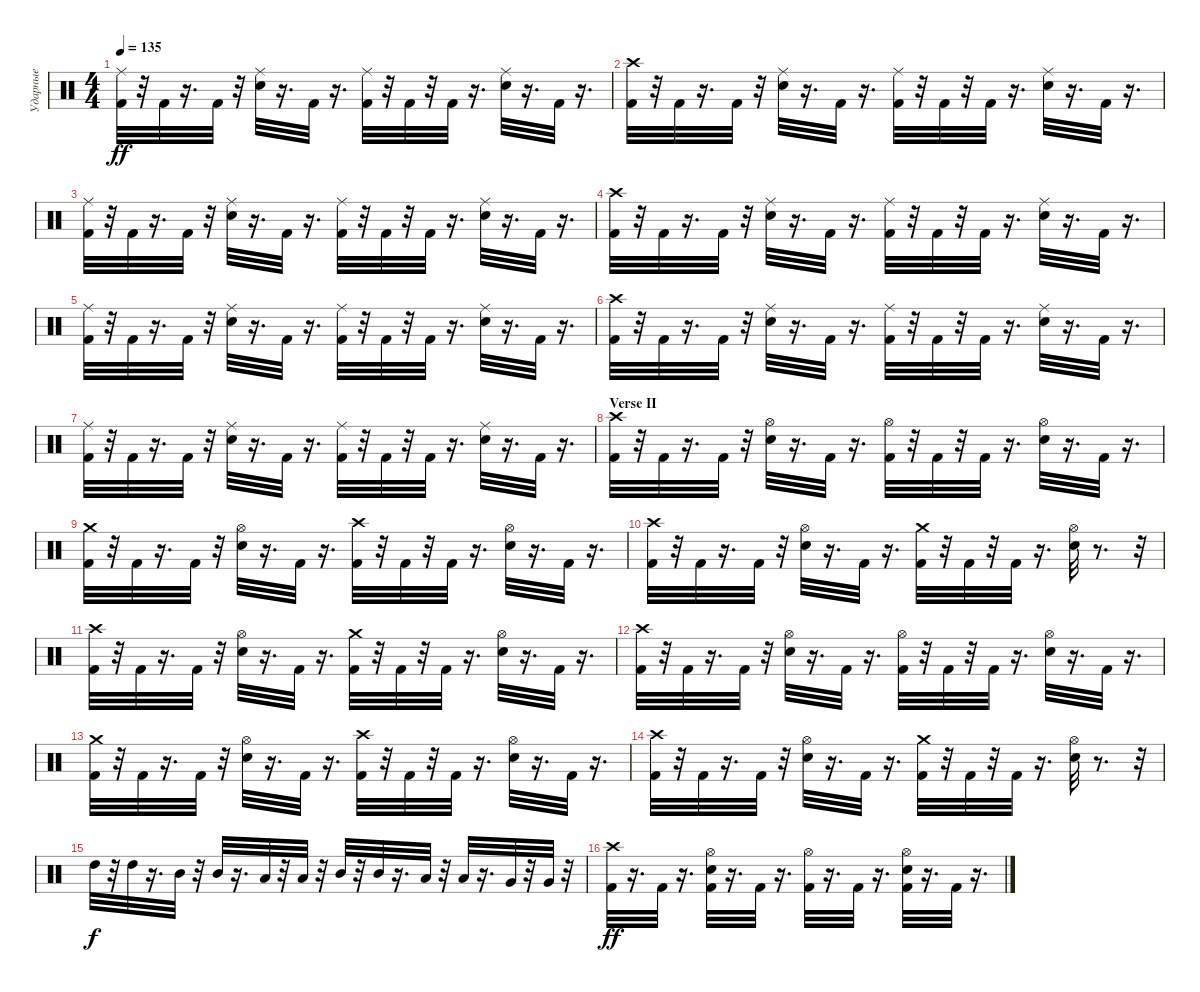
\track ("Ударные" "Ударные") {instrument percussion}
\staff {score}
\articulation defaults
\ts (4 4)
\tempo 135
\clef neutral
\ks c
("Ride (middle)" "Kick (hit) 2").32{dy ff} r.32 "Kick (hit) 2".32 r.16{d} "Kick (hit) 2".32 r.32 ("Ride (middle)" "Electric Snare (hit)").32 r.16{d} "Kick (hit) 2".32 r.16{d} ("Ride (middle)" "Kick (hit) 2").32 r.32 "Kick (hit) 2".32 r.32 "Kick (hit) 2".32 r.16{d} ("Ride (middle)" "Electric Snare (hit)").32 r.16{d} "Kick (hit) 2".32 r.16{d} |
("Crash high (hit)" "Kick (hit) 2").32 r.32 "Kick (hit) 2".32 r.16{d} "Kick (hit) 2".32 r.32 ("Ride (middle)" "Electric Snare (hit)").32 r.16{d} "Kick (hit) 2".32 r.16{d} ("Ride (middle)" "Kick (hit) 2").32 r.32 "Kick (hit) 2".32 r.32 "Kick (hit) 2".32 r.16{d} ("Ride (middle)" "Electric Snare (hit)").32 r.16{d} "Kick (hit) 2".32 r.16{d} |
("Ride (middle)" "Kick (hit) 2").32 r.32 "Kick (hit) 2".32 r.16{d} "Kick (hit) 2".32 r.32 ("Ride (middle)" "Electric Snare (hit)").32 r.16{d} "Kick (hit) 2".32 r.16{d} ("Ride (middle)" "Kick (hit) 2").32 r.32 "Kick (hit) 2".32 r.32 "Kick (hit) 2".32 r.16{d} ("Ride (middle)" "Electric Snare (hit)").32 r.16{d} "Kick (hit) 2".32 r.16{d} |
("Crash high (hit)" "Kick (hit) 2").32 r.32 "Kick (hit) 2".32 r.16{d} "Kick (hit) 2".32 r.32 ("Ride (middle)" "Electric Snare (hit)").32 r.16{d} "Kick (hit) 2".32 r.16{d} ("Ride (middle)" "Kick (hit) 2").32 r.32 "Kick (hit) 2".32 r.32 "Kick (hit) 2".32 r.16{d} ("Ride (middle)" "Electric Snare (hit)").32 r.16{d} "Kick (hit) 2".32 r.16{d} |
("Ride (middle)" "Kick (hit) 2").32 r.32 "Kick (hit) 2".32 r.16{d} "Kick (hit) 2".32 r.32 ("Ride (middle)" "Electric Snare (hit)").32 r.16{d} "Kick (hit) 2".32 r.16{d} ("Ride (middle)" "Kick (hit) 2").32 r.32 "Kick (hit) 2".32 r.32 "Kick (hit) 2".32 r.16{d} ("Ride (middle)" "Electric Snare (hit)").32 r.16{d} "Kick (hit) 2".32 r.16{d} |
("Crash high (hit)" "Kick (hit) 2").32 r.32 "Kick (hit) 2".32 r.16{d} "Kick (hit) 2".32 r.32 ("Ride (middle)" "Electric Snare (hit)").32 r.16{d} "Kick (hit) 2".32 r.16{d} ("Ride (middle)" "Kick (hit) 2").32 r.32 "Kick (hit) 2".32 r.32 "Kick (hit) 2".32 r.16{d} ("Ride (middle)" "Electric Snare (hit)").32 r.16{d} "Kick (hit) 2".32 r.16{d} |
("Ride (middle)" "Kick (hit) 2").32 r.32 "Kick (hit) 2".32 r.16{d} "Kick (hit) 2".32 r.32 ("Ride (middle)" "Electric Snare (hit)").32 r.16{d} "Kick (hit) 2".32 r.16{d} ("Ride (middle)" "Kick (hit) 2").32 r.32 "Kick (hit) 2".32 r.32 "Kick (hit) 2".32 r.16{d} ("Ride (middle)" "Electric Snare (hit)").32 r.16{d} "Kick (hit) 2".32 r.16{d} |
\section ("" "Verse II")
("Crash high (hit)" "Kick (hit) 2").32 r.32 "Kick (hit) 2".32 r.16{d} "Kick (hit) 2".32 r.32 ("Hi-Hat (open)" "Electric Snare (hit)").32 r.16{d} "Kick (hit) 2".32 r.16{d} ("Hi-Hat (open)" "Kick (hit) 2").32 r.32 "Kick (hit) 2".32 r.32 "Kick (hit) 2".32 r.16{d} ("Hi-Hat (open)" "Electric Snare (hit)").32 r.16{d} "Kick (hit) 2".32 r.16{d} |
("Kick (hit) 2" "Crash medium (hit)").32 r.32 "Kick (hit) 2".32 r.16{d} "Kick (hit) 2".32 r.32 ("Hi-Hat (open)" "Electric Snare (hit)").32 r.16{d} "Kick (hit) 2".32 r.16{d} ("Kick (hit) 2" "Crash high (hit)").32 r.32 "Kick (hit) 2".32 r.32 "Kick (hit) 2".32 r.16{d} ("Hi-Hat (open)" "Electric Snare (hit)").32 r.16{d} "Kick (hit) 2".32 r.16{d} |
("Kick (hit) 2" "Crash high (hit)").32 r.32 "Kick (hit) 2".32 r.16{d} "Kick (hit) 2".32 r.32 ("Electric Snare (hit)" "Hi-Hat (open)").32 r.16{d} "Kick (hit) 2".32 r.16{d} ("Kick (hit) 2" "Crash medium (hit)").32 r.32 "Kick (hit) 2".32 r.32 "Kick (hit) 2".32 r.16{d} ("Electric Snare (hit)" "Hi-Hat (open)").32 r.8{d} r.32 |
("Crash high (hit)" "Kick (hit) 2").32 r.32 "Kick (hit) 2".32 r.16{d} "Kick (hit) 2".32 r.32 ("Hi-Hat (open)" "Electric Snare (hit)").32 r.16{d} "Kick (hit) 2".32 r.16{d} ("Crash medium (hit)" "Kick (hit) 2").32 r.32 "Kick (hit) 2".32 r.32 "Kick (hit) 2".32 r.16{d} ("Hi-Hat (open)" "Electric Snare (hit)").32 r.16{d} "Kick (hit) 2".32 r.16{d} |
("Crash high (hit)" "Kick (hit) 2").32 r.32 "Kick (hit) 2".32 r.16{d} "Kick (hit) 2".32 r.32 ("Hi-Hat (open)" "Electric Snare (hit)").32 r.16{d} "Kick (hit) 2".32 r.16{d} ("Hi-Hat (open)" "Kick (hit) 2").32 r.32 "Kick (hit) 2".32 r.32 "Kick (hit) 2".32 r.16{d} ("Hi-Hat (open)" "Electric Snare (hit)").32 r.16{d} "Kick (hit) 2".32 r.16{d} |
("Kick (hit) 2" "Crash medium (hit)").32 r.32 "Kick (hit) 2".32 r.16{d} "Kick (hit) 2".32 r.32 ("Hi-Hat (open)" "Electric Snare (hit)").32 r.16{d} "Kick (hit) 2".32 r.16{d} ("Kick (hit) 2" "Crash high (hit)").32 r.32 "Kick (hit) 2".32 r.32 "Kick (hit) 2".32 r.16{d} ("Hi-Hat (open)" "Electric Snare (hit)").32 r.16{d} "Kick (hit) 2".32 r.16{d} |
("Kick (hit) 2" "Crash high (hit)").32 r.32 "Kick (hit) 2".32 r.16{d} "Kick (hit) 2".32 r.32 ("Electric Snare (hit)" "Hi-Hat (open)").32 r.16{d} "Kick (hit) 2".32 r.16{d} ("Kick (hit) 2" "Crash medium (hit)").32 r.32 "Kick (hit) 2".32 r.32 "Kick (hit) 2".32 r.16{d} ("Electric Snare (hit)" "Hi-Hat (open)").32 r.8{d} r.32 |
"High Tom (hit)".32{dy f} r.32 "High Tom (hit)".32 r.16{d} "Mid Tom (hit)".32 r.32 "Mid Tom (hit)".32 r.16{d} "Low Tom (hit)".32 r.32 "Low Tom (hit)".32 r.32 "Mid Tom (hit)".32 r.32 "Mid Tom (hit)".32 r.16{d} "Low Tom (hit)".32 r.32 "Low Tom (hit)".32 r.16{d} "Very Low Tom (hit)".32 r.32 "Very Low Tom (hit)".32 r.32 |
("Crash high (hit)" "Kick (hit) 2").32{dy ff} r.16{d} "Kick (hit) 2".32 r.16{d} ("Hi-Hat (open)" "Kick (hit) 2" "Electric Snare (hit)").32 r.16{d} "Kick (hit) 2".32 r.16{d} ("Hi-Hat (open)" "Kick (hit) 2").32 r.16{d} "Kick (hit) 2".32 r.16{d} ("Hi-Hat (open)" "Kick (hit) 2" "Electric Snare (hit)").32 r.16{d} "Kick (hit) 2".32 r.16{d}
